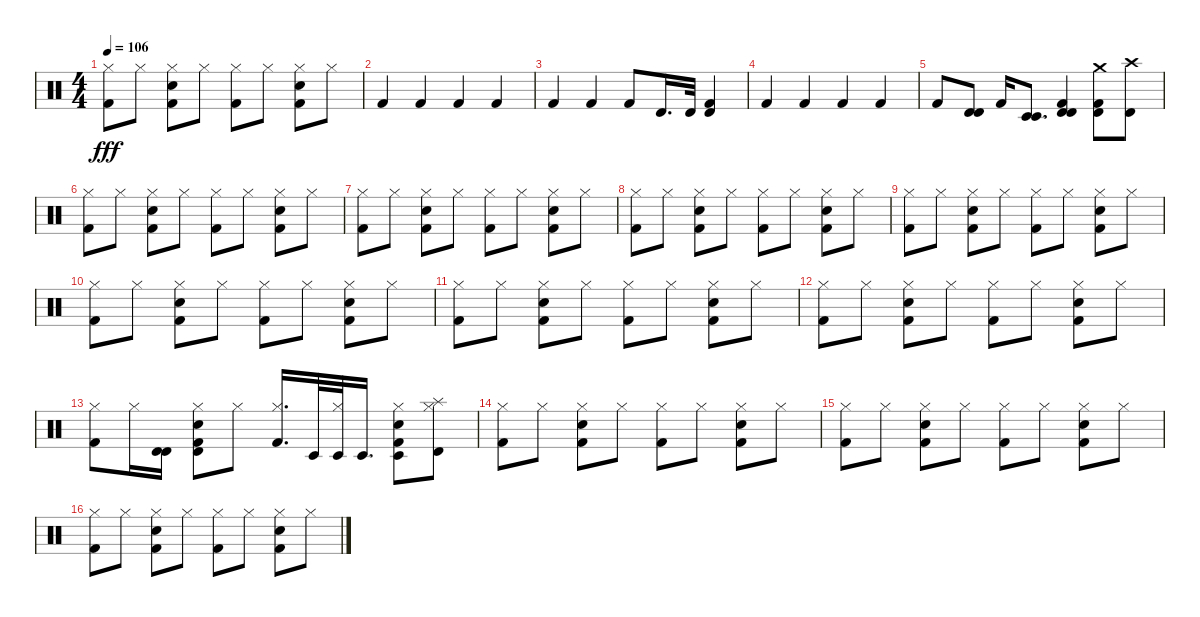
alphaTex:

\track "" {instrument percussion}
\staff {score}
\articulation defaults
\ts (4 4)
\tempo 106
\clef neutral
\ks c
("Kick (hit) 2" "Hi-Hat (closed)").8{dy fff} "Hi-Hat (closed)".8 ("Kick (hit) 2" "Snare (hit) 2" "Hi-Hat (closed)").8 "Hi-Hat (closed)".8 ("Kick (hit) 2" "Hi-Hat (closed)").8 "Hi-Hat (closed)".8 ("Kick (hit) 2" "Snare (hit) 2" "Hi-Hat (closed)").8 "Hi-Hat (closed)".8 |
"Kick (hit) 2".4 "Kick (hit) 2".4 "Kick (hit) 2".4 "Kick (hit) 2".4 |
"Kick (hit) 2".4 "Kick (hit) 2".4 "Kick (hit) 2".8 "Timbale high (hit)".16{d} "Timbale high (hit)".32 ("Kick (hit) 2" "Timbale high (hit)").4 |
"Kick (hit) 2".4 "Kick (hit) 2".4 "Kick (hit) 2".4 "Kick (hit) 2".4 |
"Kick (hit) 2".8 ("Timbale high (hit)" "Timbale high (hit)").8 "Kick (hit) 2".16 ("Timbale low (hit)" "Timbale low (hit)").8{d} ("Timbale high (hit)" "Kick (hit) 2" "Timbale high (hit)").4 ("Timbale high (hit)" "Kick (hit) 2" "Crash medium (hit)").8 ("Crash high (hit)" "Timbale high (hit)").8 |
("Kick (hit) 2" "Hi-Hat (closed)").8 "Hi-Hat (closed)".8 ("Kick (hit) 2" "Snare (hit) 2" "Hi-Hat (closed)").8 "Hi-Hat (closed)".8 ("Kick (hit) 2" "Hi-Hat (closed)").8 "Hi-Hat (closed)".8 ("Kick (hit) 2" "Snare (hit) 2" "Hi-Hat (closed)").8 "Hi-Hat (closed)".8 |
("Kick (hit) 2" "Hi-Hat (closed)").8 "Hi-Hat (closed)".8 ("Kick (hit) 2" "Snare (hit) 2" "Hi-Hat (closed)").8 "Hi-Hat (closed)".8 ("Kick (hit) 2" "Hi-Hat (closed)").8 "Hi-Hat (closed)".8 ("Kick (hit) 2" "Snare (hit) 2" "Hi-Hat (closed)").8 "Hi-Hat (closed)".8 |
("Kick (hit) 2" "Hi-Hat (closed)").8 "Hi-Hat (closed)".8 ("Kick (hit) 2" "Snare (hit) 2" "Hi-Hat (closed)").8 "Hi-Hat (closed)".8 ("Kick (hit) 2" "Hi-Hat (closed)").8 "Hi-Hat (closed)".8 ("Kick (hit) 2" "Snare (hit) 2" "Hi-Hat (closed)").8 "Hi-Hat (closed)".8 |
("Kick (hit) 2" "Hi-Hat (closed)").8 "Hi-Hat (closed)".8 ("Kick (hit) 2" "Snare (hit) 2" "Hi-Hat (closed)").8 "Hi-Hat (closed)".8 ("Kick (hit) 2" "Hi-Hat (closed)").8 "Hi-Hat (closed)".8 ("Kick (hit) 2" "Snare (hit) 2" "Hi-Hat (closed)").8 "Hi-Hat (closed)".8 |
("Kick (hit) 2" "Hi-Hat (closed)").8 "Hi-Hat (closed)".8 ("Kick (hit) 2" "Snare (hit) 2" "Hi-Hat (closed)").8 "Hi-Hat (closed)".8 ("Kick (hit) 2" "Hi-Hat (closed)").8 "Hi-Hat (closed)".8 ("Kick (hit) 2" "Snare (hit) 2" "Hi-Hat (closed)").8 "Hi-Hat (closed)".8 |
("Kick (hit) 2" "Hi-Hat (closed)").8 "Hi-Hat (closed)".8 ("Kick (hit) 2" "Snare (hit) 2" "Hi-Hat (closed)").8 "Hi-Hat (closed)".8 ("Kick (hit) 2" "Hi-Hat (closed)").8 "Hi-Hat (closed)".8 ("Kick (hit) 2" "Snare (hit) 2" "Hi-Hat (closed)").8 "Hi-Hat (closed)".8 |
("Kick (hit) 2" "Hi-Hat (closed)").8 "Hi-Hat (closed)".8 ("Kick (hit) 2" "Snare (hit) 2" "Hi-Hat (closed)").8 "Hi-Hat (closed)".8 ("Kick (hit) 2" "Hi-Hat (closed)").8 "Hi-Hat (closed)".8 ("Kick (hit) 2" "Snare (hit) 2" "Hi-Hat (closed)").8 "Hi-Hat (closed)".8 |
("Hi-Hat (closed)" "Kick (hit) 2").8 "Hi-Hat (closed)".16 ("Timbale high (hit)" "Timbale high (hit)").16 ("Timbale high (hit)" "Hi-Hat (closed)" "Kick (hit) 2" "Snare (hit) 2").8 "Hi-Hat (closed)".8 ("Kick (hit) 2" "Hi-Hat (closed)").16{d} "Timbale low (hit)".32 ("Timbale low (hit)" "Hi-Hat (closed)").32 "Timbale low (hit)".16{d} ("Hi-Hat (closed)" "Kick (hit) 2" "Snare (hit) 2" "Timbale low (hit)").8 ("Hi-Hat (closed)" "Splash (hit)" "Timbale high (hit)").8 |
("Kick (hit) 2" "Hi-Hat (closed)").8 "Hi-Hat (closed)".8 ("Kick (hit) 2" "Snare (hit) 2" "Hi-Hat (closed)").8 "Hi-Hat (closed)".8 ("Kick (hit) 2" "Hi-Hat (closed)").8 "Hi-Hat (closed)".8 ("Kick (hit) 2" "Snare (hit) 2" "Hi-Hat (closed)").8 "Hi-Hat (closed)".8 |
("Kick (hit) 2" "Hi-Hat (closed)").8 "Hi-Hat (closed)".8 ("Kick (hit) 2" "Snare (hit) 2" "Hi-Hat (closed)").8 "Hi-Hat (closed)".8 ("Kick (hit) 2" "Hi-Hat (closed)").8 "Hi-Hat (closed)".8 ("Kick (hit) 2" "Snare (hit) 2" "Hi-Hat (closed)").8 "Hi-Hat (closed)".8 |
("Kick (hit) 2" "Hi-Hat (closed)").8 "Hi-Hat (closed)".8 ("Kick (hit) 2" "Snare (hit) 2" "Hi-Hat (closed)").8 "Hi-Hat (closed)".8 ("Kick (hit) 2" "Hi-Hat (closed)").8 "Hi-Hat (closed)".8 ("Kick (hit) 2" "Snare (hit) 2" "Hi-Hat (closed)").8 "Hi-Hat (closed)".8
